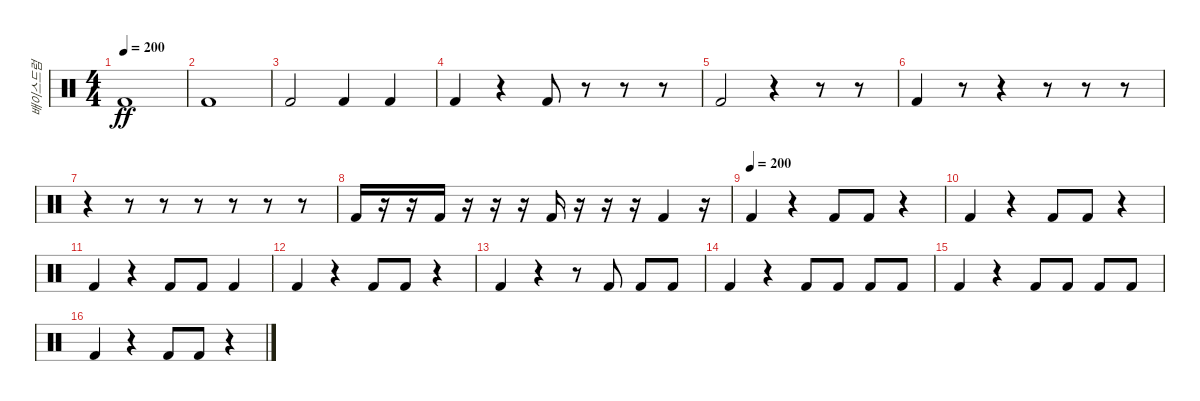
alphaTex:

\track ("배이스드럼" "배이스드럼") {instrument percussion}
\staff {score}
\articulation defaults
\ts (4 4)
\tempo 200
\clef neutral
\ks c "Kick (hit) 2".1{dy ff}
|
"Kick (hit) 2".1 |
"Kick (hit) 2".2 "Kick (hit) 2".4 "Kick (hit) 2".4 |
"Kick (hit) 2".4 r.4 "Kick (hit) 2".8 r.8 r.8 r.8 |
"Kick (hit) 2".2 r.4 r.8 r.8 |
"Kick (hit) 2".4 r.8 r.4 r.8 r.8 r.8 |
r.4 r.8 r.8 r.8 r.8 r.8 r.8 |
"Kick (hit) 2".16 r.16 r.16 "Kick (hit) 2".16 r.16 r.16 r.16 "Kick (hit) 2".16 r.16 r.16 r.16 "Kick (hit) 2".4 r.16 |
\tempo (200)
"Kick (hit) 2".4 r.4 "Kick (hit) 2".8 "Kick (hit) 2".8 r.4 |
"Kick (hit) 2".4 r.4 "Kick (hit) 2".8 "Kick (hit) 2".8 r.4 |
"Kick (hit) 2".4 r.4 "Kick (hit) 2".8 "Kick (hit) 2".8 "Kick (hit) 2".4 |
"Kick (hit) 2".4 r.4 "Kick (hit) 2".8 "Kick (hit) 2".8 r.4 |
"Kick (hit) 2".4 r.4 r.8 "Kick (hit) 2".8 "Kick (hit) 2".8 "Kick (hit) 2".8 |
"Kick (hit) 2".4 r.4 "Kick (hit) 2".8 "Kick (hit) 2".8 "Kick (hit) 2".8 "Kick (hit) 2".8 |
"Kick (hit) 2".4 r.4 "Kick (hit) 2".8 "Kick (hit) 2".8 "Kick (hit) 2".8 "Kick (hit) 2".8 |
"Kick (hit) 2".4 r.4 "Kick (hit) 2".8 "Kick (hit) 2".8 r.4
